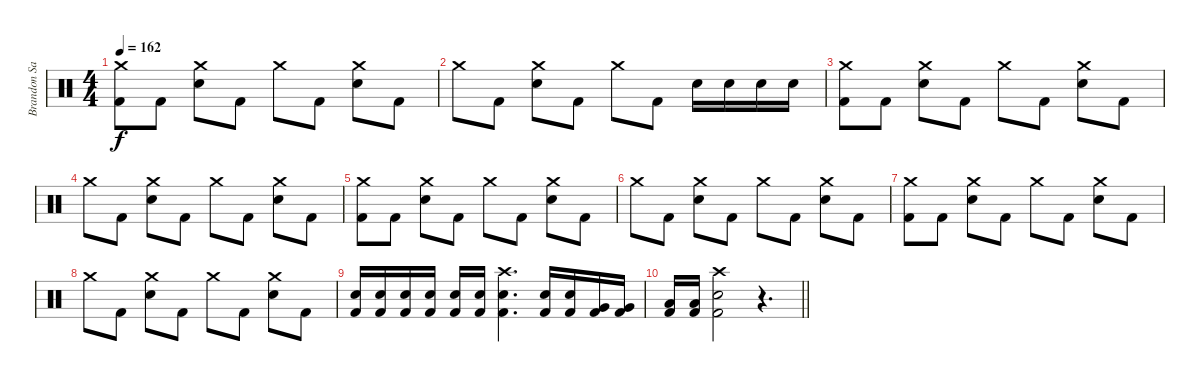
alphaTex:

\track ("Brandon Saller" "Brandon Sa") {instrument percussion}
\staff {score}
\articulation defaults
\ts (4 4)
\tempo 162
\clef neutral
\ks c
("Crash medium (hit)" "Kick (hit) 2").8{dy f} "Kick (hit) 2".8 ("Crash medium (hit)" "Electric Snare (hit)").8 "Kick (hit) 2".8 "Crash medium (hit)".8 "Kick (hit) 2".8 ("Crash medium (hit)" "Electric Snare (hit)").8 "Kick (hit) 2".8 |
"Crash medium (hit)".8 "Kick (hit) 2".8 ("Crash medium (hit)" "Electric Snare (hit)").8 "Kick (hit) 2".8 "Crash medium (hit)".8 "Kick (hit) 2".8 "Electric Snare (hit)".16 "Electric Snare (hit)".16 "Electric Snare (hit)".16 "Electric Snare (hit)".16 |
("Crash medium (hit)" "Kick (hit) 2").8 "Kick (hit) 2".8 ("Crash medium (hit)" "Electric Snare (hit)").8 "Kick (hit) 2".8 "Crash medium (hit)".8 "Kick (hit) 2".8 ("Crash medium (hit)" "Electric Snare (hit)").8 "Kick (hit) 2".8 |
"Crash medium (hit)".8 "Kick (hit) 2".8 ("Crash medium (hit)" "Electric Snare (hit)").8 "Kick (hit) 2".8 "Crash medium (hit)".8 "Kick (hit) 2".8 ("Crash medium (hit)" "Electric Snare (hit)").8 "Kick (hit) 2".8 |
("Crash medium (hit)" "Kick (hit) 2").8 "Kick (hit) 2".8 ("Crash medium (hit)" "Electric Snare (hit)").8 "Kick (hit) 2".8 "Crash medium (hit)".8 "Kick (hit) 2".8 ("Crash medium (hit)" "Electric Snare (hit)").8 "Kick (hit) 2".8 |
"Crash medium (hit)".8 "Kick (hit) 2".8 ("Crash medium (hit)" "Electric Snare (hit)").8 "Kick (hit) 2".8 "Crash medium (hit)".8 "Kick (hit) 2".8 ("Crash medium (hit)" "Electric Snare (hit)").8 "Kick (hit) 2".8 |
("Crash medium (hit)" "Kick (hit) 2").8 "Kick (hit) 2".8 ("Crash medium (hit)" "Electric Snare (hit)").8 "Kick (hit) 2".8 "Crash medium (hit)".8 "Kick (hit) 2".8 ("Crash medium (hit)" "Electric Snare (hit)").8 "Kick (hit) 2".8 |
"Crash medium (hit)".8 "Kick (hit) 2".8 ("Crash medium (hit)" "Electric Snare (hit)").8 "Kick (hit) 2".8 "Crash medium (hit)".8 "Kick (hit) 2".8 ("Crash medium (hit)" "Electric Snare (hit)").8 "Kick (hit) 2".8 |
("Electric Snare (hit)" "Kick (hit) 2").16 ("Electric Snare (hit)" "Kick (hit) 2").16 ("Electric Snare (hit)" "Kick (hit) 2").16 ("Electric Snare (hit)" "Kick (hit) 2").16 ("Electric Snare (hit)" "Kick (hit) 2").16 ("Electric Snare (hit)" "Kick (hit) 2").16 ("Crash high (hit)" "Electric Snare (hit)" "Kick (hit) 2").4{d} ("Electric Snare (hit)" "Kick (hit) 2").16 ("Electric Snare (hit)" "Kick (hit) 2").16 ("Very Low Tom (hit)" "Kick (hit) 2").16 ("Very Low Tom (hit)" "Kick (hit) 2").16 |
\barLineRight lightlight
("Low Floor Tom (hit)" "Kick (hit) 2").16 ("Low Floor Tom (hit)" "Kick (hit) 2").16 ("Crash high (hit)" "Electric Snare (hit)" "Kick (hit) 2").2 r.4{d}
